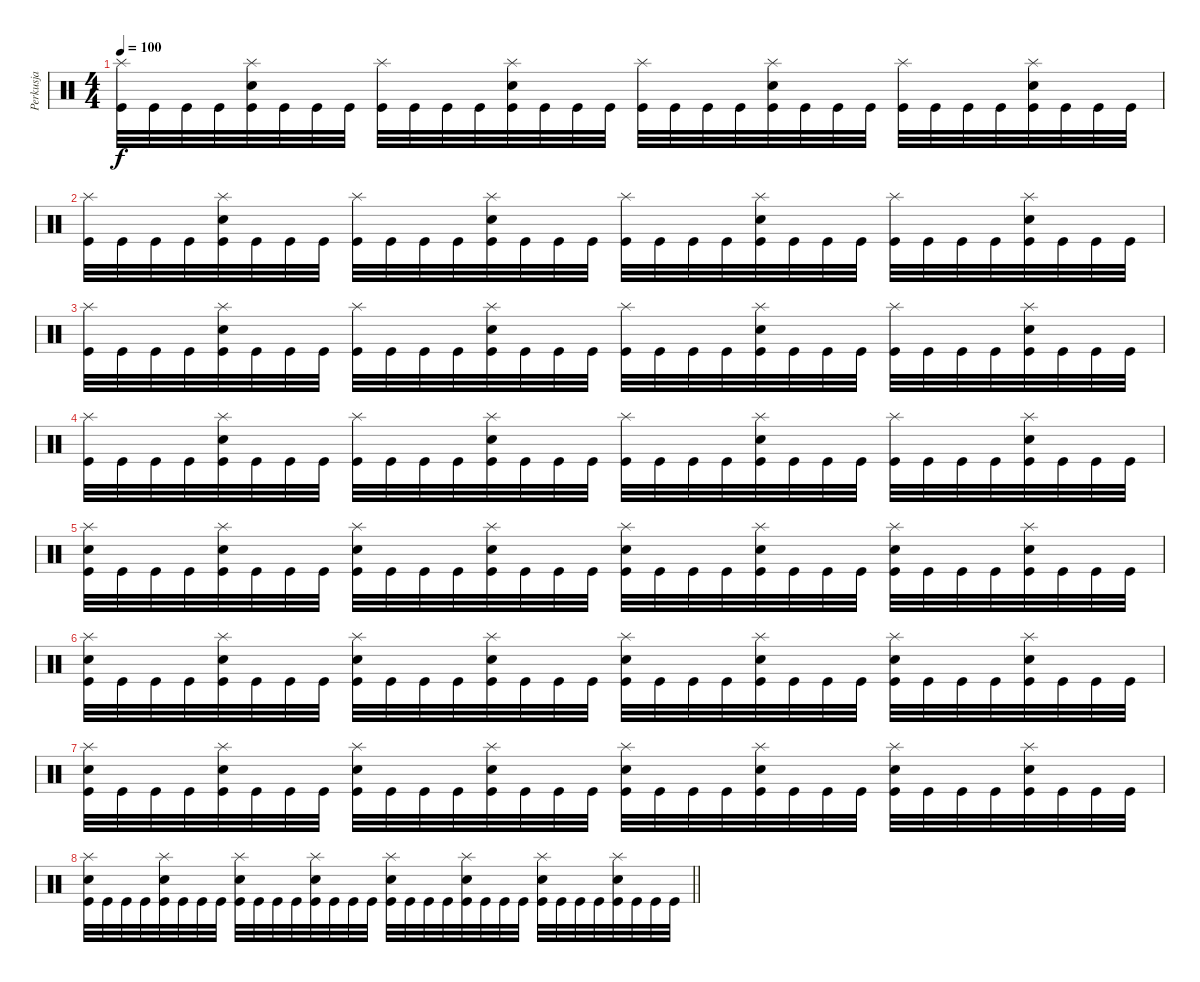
\track ("Perkusja" "Perkusja") {instrument percussion}
\staff {score}
\articulation defaults
\ts (4 4)
\tempo 100
\clef neutral
\ks c
("Splash (hit)" "Kick (hit)").32{dy f} "Kick (hit)".32 "Kick (hit)".32 "Kick (hit)".32 ("Splash (hit)" "Snare (hit) 2" "Kick (hit)").32 "Kick (hit)".32 "Kick (hit)".32 "Kick (hit)".32 ("Splash (hit)" "Kick (hit)").32 "Kick (hit)".32 "Kick (hit)".32 "Kick (hit)".32 ("Splash (hit)" "Snare (hit) 2" "Kick (hit)").32 "Kick (hit)".32 "Kick (hit)".32 "Kick (hit)".32 ("Splash (hit)" "Kick (hit)").32 "Kick (hit)".32 "Kick (hit)".32 "Kick (hit)".32 ("Splash (hit)" "Snare (hit) 2" "Kick (hit)").32 "Kick (hit)".32 "Kick (hit)".32 "Kick (hit)".32 ("Splash (hit)" "Kick (hit)").32 "Kick (hit)".32 "Kick (hit)".32 "Kick (hit)".32 ("Splash (hit)" "Snare (hit) 2" "Kick (hit)").32 "Kick (hit)".32 "Kick (hit)".32 "Kick (hit)".32 |
("Splash (hit)" "Kick (hit)").32 "Kick (hit)".32 "Kick (hit)".32 "Kick (hit)".32 ("Splash (hit)" "Snare (hit) 2" "Kick (hit)").32 "Kick (hit)".32 "Kick (hit)".32 "Kick (hit)".32 ("Splash (hit)" "Kick (hit)").32 "Kick (hit)".32 "Kick (hit)".32 "Kick (hit)".32 ("Splash (hit)" "Snare (hit) 2" "Kick (hit)").32 "Kick (hit)".32 "Kick (hit)".32 "Kick (hit)".32 ("Splash (hit)" "Kick (hit)").32 "Kick (hit)".32 "Kick (hit)".32 "Kick (hit)".32 ("Splash (hit)" "Snare (hit) 2" "Kick (hit)").32 "Kick (hit)".32 "Kick (hit)".32 "Kick (hit)".32 ("Splash (hit)" "Kick (hit)").32 "Kick (hit)".32 "Kick (hit)".32 "Kick (hit)".32 ("Splash (hit)" "Snare (hit) 2" "Kick (hit)").32 "Kick (hit)".32 "Kick (hit)".32 "Kick (hit)".32 |
("Splash (hit)" "Kick (hit)").32 "Kick (hit)".32 "Kick (hit)".32 "Kick (hit)".32 ("Splash (hit)" "Snare (hit) 2" "Kick (hit)").32 "Kick (hit)".32 "Kick (hit)".32 "Kick (hit)".32 ("Splash (hit)" "Kick (hit)").32 "Kick (hit)".32 "Kick (hit)".32 "Kick (hit)".32 ("Splash (hit)" "Snare (hit) 2" "Kick (hit)").32 "Kick (hit)".32 "Kick (hit)".32 "Kick (hit)".32 ("Splash (hit)" "Kick (hit)").32 "Kick (hit)".32 "Kick (hit)".32 "Kick (hit)".32 ("Splash (hit)" "Snare (hit) 2" "Kick (hit)").32 "Kick (hit)".32 "Kick (hit)".32 "Kick (hit)".32 ("Splash (hit)" "Kick (hit)").32 "Kick (hit)".32 "Kick (hit)".32 "Kick (hit)".32 ("Splash (hit)" "Snare (hit) 2" "Kick (hit)").32 "Kick (hit)".32 "Kick (hit)".32 "Kick (hit)".32 |
("Splash (hit)" "Kick (hit)").32 "Kick (hit)".32 "Kick (hit)".32 "Kick (hit)".32 ("Splash (hit)" "Snare (hit) 2" "Kick (hit)").32 "Kick (hit)".32 "Kick (hit)".32 "Kick (hit)".32 ("Splash (hit)" "Kick (hit)").32 "Kick (hit)".32 "Kick (hit)".32 "Kick (hit)".32 ("Splash (hit)" "Snare (hit) 2" "Kick (hit)").32 "Kick (hit)".32 "Kick (hit)".32 "Kick (hit)".32 ("Splash (hit)" "Kick (hit)").32 "Kick (hit)".32 "Kick (hit)".32 "Kick (hit)".32 ("Splash (hit)" "Snare (hit) 2" "Kick (hit)").32 "Kick (hit)".32 "Kick (hit)".32 "Kick (hit)".32 ("Splash (hit)" "Kick (hit)").32 "Kick (hit)".32 "Kick (hit)".32 "Kick (hit)".32 ("Splash (hit)" "Snare (hit) 2" "Kick (hit)").32 "Kick (hit)".32 "Kick (hit)".32 "Kick (hit)".32 |
("Splash (hit)" "Snare (hit) 2" "Kick (hit)").32 "Kick (hit)".32 "Kick (hit)".32 "Kick (hit)".32 ("Splash (hit)" "Snare (hit) 2" "Kick (hit)").32 "Kick (hit)".32 "Kick (hit)".32 "Kick (hit)".32 ("Splash (hit)" "Snare (hit) 2" "Kick (hit)").32 "Kick (hit)".32 "Kick (hit)".32 "Kick (hit)".32 ("Splash (hit)" "Snare (hit) 2" "Kick (hit)").32 "Kick (hit)".32 "Kick (hit)".32 "Kick (hit)".32 ("Splash (hit)" "Snare (hit) 2" "Kick (hit)").32 "Kick (hit)".32 "Kick (hit)".32 "Kick (hit)".32 ("Splash (hit)" "Snare (hit) 2" "Kick (hit)").32 "Kick (hit)".32 "Kick (hit)".32 "Kick (hit)".32 ("Splash (hit)" "Snare (hit) 2" "Kick (hit)").32 "Kick (hit)".32 "Kick (hit)".32 "Kick (hit)".32 ("Splash (hit)" "Snare (hit) 2" "Kick (hit)").32 "Kick (hit)".32 "Kick (hit)".32 "Kick (hit)".32 |
("Splash (hit)" "Snare (hit) 2" "Kick (hit)").32 "Kick (hit)".32 "Kick (hit)".32 "Kick (hit)".32 ("Splash (hit)" "Snare (hit) 2" "Kick (hit)").32 "Kick (hit)".32 "Kick (hit)".32 "Kick (hit)".32 ("Splash (hit)" "Snare (hit) 2" "Kick (hit)").32 "Kick (hit)".32 "Kick (hit)".32 "Kick (hit)".32 ("Splash (hit)" "Snare (hit) 2" "Kick (hit)").32 "Kick (hit)".32 "Kick (hit)".32 "Kick (hit)".32 ("Splash (hit)" "Snare (hit) 2" "Kick (hit)").32 "Kick (hit)".32 "Kick (hit)".32 "Kick (hit)".32 ("Splash (hit)" "Snare (hit) 2" "Kick (hit)").32 "Kick (hit)".32 "Kick (hit)".32 "Kick (hit)".32 ("Splash (hit)" "Snare (hit) 2" "Kick (hit)").32 "Kick (hit)".32 "Kick (hit)".32 "Kick (hit)".32 ("Splash (hit)" "Snare (hit) 2" "Kick (hit)").32 "Kick (hit)".32 "Kick (hit)".32 "Kick (hit)".32 |
("Splash (hit)" "Snare (hit) 2" "Kick (hit)").32 "Kick (hit)".32 "Kick (hit)".32 "Kick (hit)".32 ("Splash (hit)" "Snare (hit) 2" "Kick (hit)").32 "Kick (hit)".32 "Kick (hit)".32 "Kick (hit)".32 ("Splash (hit)" "Snare (hit) 2" "Kick (hit)").32 "Kick (hit)".32 "Kick (hit)".32 "Kick (hit)".32 ("Splash (hit)" "Snare (hit) 2" "Kick (hit)").32 "Kick (hit)".32 "Kick (hit)".32 "Kick (hit)".32 ("Splash (hit)" "Snare (hit) 2" "Kick (hit)").32 "Kick (hit)".32 "Kick (hit)".32 "Kick (hit)".32 ("Splash (hit)" "Snare (hit) 2" "Kick (hit)").32 "Kick (hit)".32 "Kick (hit)".32 "Kick (hit)".32 ("Splash (hit)" "Snare (hit) 2" "Kick (hit)").32 "Kick (hit)".32 "Kick (hit)".32 "Kick (hit)".32 ("Splash (hit)" "Snare (hit) 2" "Kick (hit)").32 "Kick (hit)".32 "Kick (hit)".32 "Kick (hit)".32 |
\barLineRight lightlight
("Splash (hit)" "Snare (hit) 2" "Kick (hit)").32 "Kick (hit)".32 "Kick (hit)".32 "Kick (hit)".32 ("Splash (hit)" "Snare (hit) 2" "Kick (hit)").32 "Kick (hit)".32 "Kick (hit)".32 "Kick (hit)".32 ("Splash (hit)" "Snare (hit) 2" "Kick (hit)").32 "Kick (hit)".32 "Kick (hit)".32 "Kick (hit)".32 ("Splash (hit)" "Snare (hit) 2" "Kick (hit)").32 "Kick (hit)".32 "Kick (hit)".32 "Kick (hit)".32 ("Splash (hit)" "Snare (hit) 2" "Kick (hit)").32 "Kick (hit)".32 "Kick (hit)".32 "Kick (hit)".32 ("Splash (hit)" "Snare (hit) 2" "Kick (hit)").32 "Kick (hit)".32 "Kick (hit)".32 "Kick (hit)".32 ("Splash (hit)" "Snare (hit) 2" "Kick (hit)").32 "Kick (hit)".32 "Kick (hit)".32 "Kick (hit)".32 ("Splash (hit)" "Snare (hit) 2" "Kick (hit)").32 "Kick (hit)".32 "Kick (hit)".32 "Kick (hit)".32
